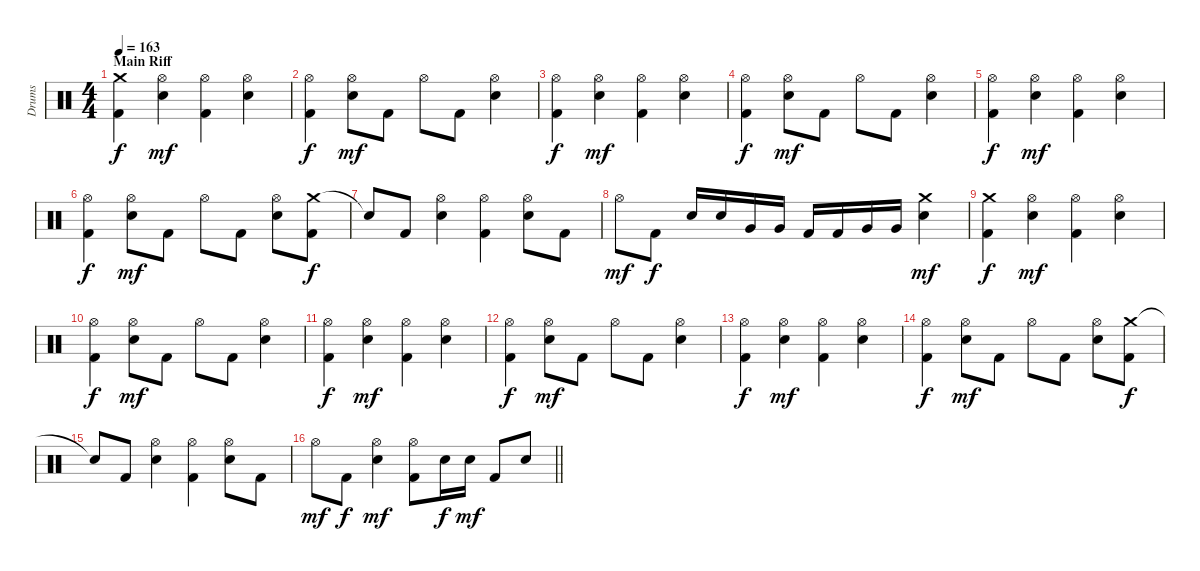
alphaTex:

\track ("Drums" "Drums") {instrument percussion}
\staff {score}
\articulation defaults
\ts (4 4)
\section ("" "Main Riff")
\tempo 163
\clef neutral
\ks c
("Crash medium (hit)" "Kick (hit) 2").4{dy f} ("Hi-Hat (open)" "Electric Snare (hit)").4{dy mf} ("Hi-Hat (open)" "Kick (hit) 2").4 ("Hi-Hat (open)" "Electric Snare (hit)").4 |
("Hi-Hat (open)" "Kick (hit) 2").4{dy f} ("Hi-Hat (open)" "Electric Snare (hit)").8{dy mf} "Kick (hit) 2".8 "Hi-Hat (open)".8 "Kick (hit) 2".8 ("Hi-Hat (open)" "Electric Snare (hit)").4 |
("Hi-Hat (open)" "Kick (hit) 2").4{dy f} ("Hi-Hat (open)" "Electric Snare (hit)").4{dy mf} ("Hi-Hat (open)" "Kick (hit) 2").4 ("Hi-Hat (open)" "Electric Snare (hit)").4 |
("Hi-Hat (open)" "Kick (hit) 2").4{dy f} ("Hi-Hat (open)" "Electric Snare (hit)").8{dy mf} "Kick (hit) 2".8 "Hi-Hat (open)".8 "Kick (hit) 2".8 ("Hi-Hat (open)" "Electric Snare (hit)").4 |
("Hi-Hat (open)" "Kick (hit) 2").4{dy f} ("Hi-Hat (open)" "Electric Snare (hit)").4{dy mf} ("Hi-Hat (open)" "Kick (hit) 2").4 ("Hi-Hat (open)" "Electric Snare (hit)").4 |
("Hi-Hat (open)" "Kick (hit) 2").4{dy f} ("Hi-Hat (open)" "Electric Snare (hit)").8{dy mf} "Kick (hit) 2".8 "Hi-Hat (open)".8 "Kick (hit) 2".8 ("Hi-Hat (open)" "Electric Snare (hit)").8 ("Crash medium (hit)" "Kick (hit) 2").8{dy f} |
"Snare (hit)"{t}.8 "Kick (hit) 2".8 ("Hi-Hat (open)" "Electric Snare (hit)").4 ("Hi-Hat (open)" "Kick (hit) 2").4 ("Hi-Hat (open)" "Electric Snare (hit)").8 "Kick (hit) 2".8 |
"Hi-Hat (open)".8{dy mf} "Kick (hit) 2".8{dy f} "Electric Snare (hit)".16 "Electric Snare (hit)".16 "Very Low Tom (hit)".16 "Very Low Tom (hit)".16 "Kick (hit) 2".16 "Kick (hit) 2".16 "Very Low Tom (hit)".16 "Very Low Tom (hit)".16 ("Crash medium (hit)" "Electric Snare (hit)").4{dy mf} |
("Crash medium (hit)" "Kick (hit) 2").4{dy f} ("Hi-Hat (open)" "Electric Snare (hit)").4{dy mf} ("Hi-Hat (open)" "Kick (hit) 2").4 ("Hi-Hat (open)" "Electric Snare (hit)").4 |
("Hi-Hat (open)" "Kick (hit) 2").4{dy f} ("Hi-Hat (open)" "Electric Snare (hit)").8{dy mf} "Kick (hit) 2".8 "Hi-Hat (open)".8 "Kick (hit) 2".8 ("Hi-Hat (open)" "Electric Snare (hit)").4 |
("Hi-Hat (open)" "Kick (hit) 2").4{dy f} ("Hi-Hat (open)" "Electric Snare (hit)").4{dy mf} ("Hi-Hat (open)" "Kick (hit) 2").4 ("Hi-Hat (open)" "Electric Snare (hit)").4 |
("Hi-Hat (open)" "Kick (hit) 2").4{dy f} ("Hi-Hat (open)" "Electric Snare (hit)").8{dy mf} "Kick (hit) 2".8 "Hi-Hat (open)".8 "Kick (hit) 2".8 ("Hi-Hat (open)" "Electric Snare (hit)").4 |
("Hi-Hat (open)" "Kick (hit) 2").4{dy f} ("Hi-Hat (open)" "Electric Snare (hit)").4{dy mf} ("Hi-Hat (open)" "Kick (hit) 2").4 ("Hi-Hat (open)" "Electric Snare (hit)").4 |
("Hi-Hat (open)" "Kick (hit) 2").4{dy f} ("Hi-Hat (open)" "Electric Snare (hit)").8{dy mf} "Kick (hit) 2".8 "Hi-Hat (open)".8 "Kick (hit) 2".8 ("Hi-Hat (open)" "Electric Snare (hit)").8 ("Crash medium (hit)" "Kick (hit) 2").8{dy f} |
"Snare (hit)"{t}.8 "Kick (hit) 2".8 ("Hi-Hat (open)" "Electric Snare (hit)").4 ("Hi-Hat (open)" "Kick (hit) 2").4 ("Hi-Hat (open)" "Electric Snare (hit)").8 "Kick (hit) 2".8 |
\barLineRight lightlight "Hi-Hat (open)".8{dy mf} "Kick (hit) 2".8{dy f}
("Hi-Hat (open)" "Electric Snare (hit)").4{dy mf} ("Hi-Hat (open)" "Kick (hit) 2").8 "Electric Snare (hit)".16{dy f} "Electric Snare (hit)".16{dy mf} "Kick (hit) 2".8 "Electric Snare (hit)".8
